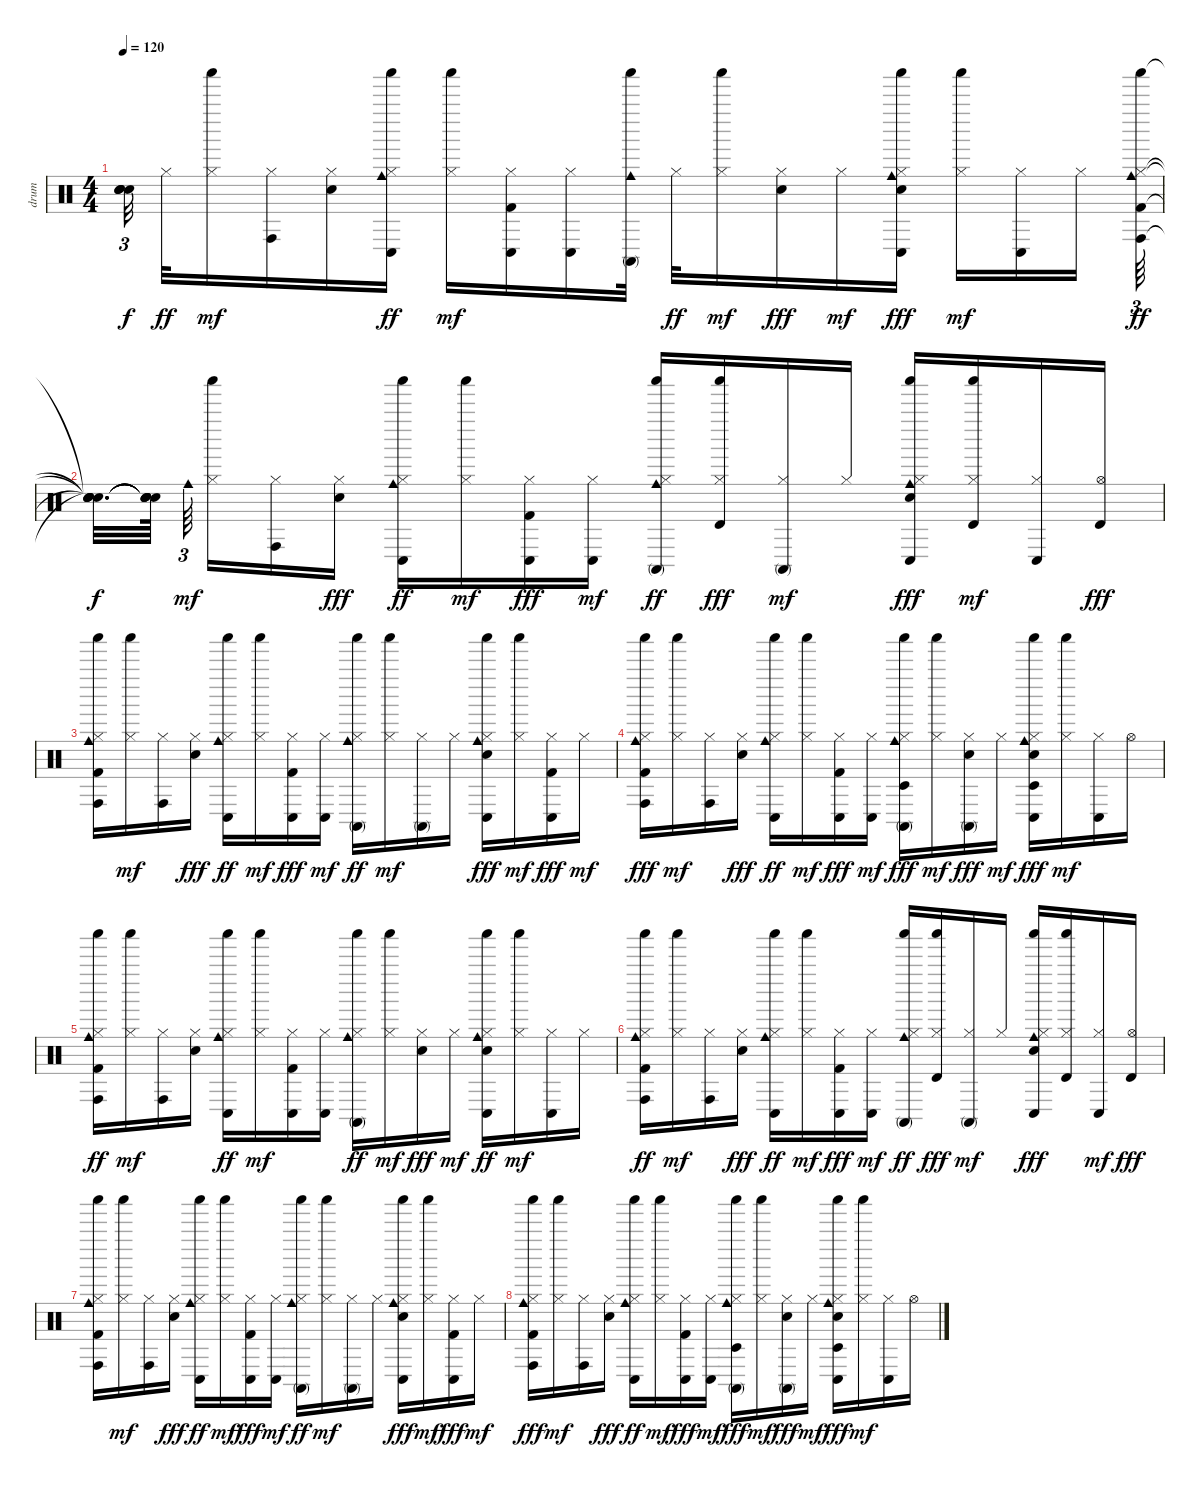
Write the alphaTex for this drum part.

\track ("drum" "drum") {instrument percussion}
\staff {score}
\articulation defaults
\ts (4 4)
\tempo 120
\clef neutral
\ks c
("Snare (hit)"{t} "Snare (hit)"{t} "Snare (hit)"{t} "Snare (hit)"{t}).32{tu (3 2) dy f beam splitsecondary} "Hi-Hat (closed)".32{dy ff} ("Shaker (hit)" "Hi-Hat (closed)").16{dy mf} ("Conga high (hit)" "Hi-Hat (closed)").16 ("Electric Snare (hit)" "Hi-Hat (closed)").16 ("Conga low (hit)" "Cowbell medium (hit)" "Shaker (hit)" "Hi-Hat (closed)").16{dy ff} ("Shaker (hit)" "Hi-Hat (closed)").16{dy mf} ("Conga low (hit)" "Kick (hit) 2" "Hi-Hat (closed)").16 ("Conga low (hit)" "Hi-Hat (closed)").16 ("Conga high (mute)" "Cowbell medium (hit)" "Shaker (hit)").32 "Hi-Hat (closed)".32{dy ff} ("Shaker (hit)" "Hi-Hat (closed)").16{dy mf} ("Hi-Hat (closed)" "Electric Snare (hit)").16{dy fff} "Hi-Hat (closed)".16{dy mf} ("Conga low (hit)" "Shaker (hit)" "Cowbell medium (hit)" "Hi-Hat (closed)" "Electric Snare (hit)").16{dy fff} ("Shaker (hit)" "Hi-Hat (closed)").16{dy mf} ("Conga low (hit)" "Hi-Hat (closed)").16 "Hi-Hat (closed)".16{beam splitsecondary} ("Conga high (hit)" "Shaker (hit)" "Cowbell medium (hit)" "Kick (hit) 2" "Hi-Hat (closed)").64{tu (3 2) dy ff} |
("Snare (hit)"{t} "Snare (hit)"{t} "Snare (hit)"{t} "Snare (hit)"{t} "Snare (hit)"{t}).32{d dy f} ("Snare (hit)"{t} "Snare (hit)"{t} "Snare (hit)"{t} "Snare (hit)"{t} "Snare (hit)"{t}).64{beam splitsecondary} "Cowbell medium (hit)".64{tu (3 2) dy mf beam splitsecondary} ("Shaker (hit)" "Hi-Hat (closed)").16 ("Conga high (hit)" "Hi-Hat (closed)").16 ("Hi-Hat (closed)" "Electric Snare (hit)").16{dy fff} ("Conga low (hit)" "Cowbell medium (hit)" "Shaker (hit)" "Hi-Hat (closed)").16{dy ff} ("Shaker (hit)" "Hi-Hat (closed)").16{dy mf} ("Conga low (hit)" "Hi-Hat (closed)" "Kick (hit) 2").16{dy fff} ("Conga low (hit)" "Hi-Hat (closed)").16{dy mf} ("Conga high (mute)" "Cowbell medium (hit)" "Shaker (hit)" "Hi-Hat (closed)").16{dy ff} ("Shaker (hit)" "Hi-Hat (closed)" "Timbale high (hit)").16{dy fff} ("Conga high (mute)" "Hi-Hat (closed)").16{dy mf} "Hi-Hat (closed)".16 ("Conga low (hit)" "Cowbell medium (hit)" "Shaker (hit)" "Hi-Hat (closed)" "Electric Snare (hit)").16{dy fff} ("Shaker (hit)" "Timbale high (hit)" "Hi-Hat (closed)").16{dy mf} ("Conga low (hit)" "Hi-Hat (closed)").16 ("Hi-Hat (open)" "Timbale high (hit)").16{dy fff} |
("Conga high (hit)" "Shaker (hit)" "Cowbell medium (hit)" "Hi-Hat (closed)" "Kick (hit) 2").16 ("Shaker (hit)" "Hi-Hat (closed)").16{dy mf} ("Conga high (hit)" "Hi-Hat (closed)").16 ("Hi-Hat (closed)" "Electric Snare (hit)").16{dy fff} ("Conga low (hit)" "Shaker (hit)" "Cowbell medium (hit)" "Hi-Hat (closed)").16{dy ff} ("Hi-Hat (closed)" "Shaker (hit)").16{dy mf} ("Conga low (hit)" "Hi-Hat (closed)" "Kick (hit) 2").16{dy fff} ("Hi-Hat (closed)" "Conga low (hit)").16{dy mf} ("Conga high (mute)" "Cowbell medium (hit)" "Shaker (hit)" "Hi-Hat (closed)").16{dy ff} ("Shaker (hit)" "Hi-Hat (closed)").16{dy mf} ("Conga high (mute)" "Hi-Hat (closed)").16 "Hi-Hat (closed)".16 ("Conga low (hit)" "Cowbell medium (hit)" "Shaker (hit)" "Hi-Hat (closed)" "Electric Snare (hit)").16{dy fff} ("Shaker (hit)" "Hi-Hat (closed)").16{dy mf} ("Conga low (hit)" "Hi-Hat (closed)" "Kick (hit) 2").16{dy fff} "Hi-Hat (closed)".16{dy mf} |
("Conga high (hit)" "Cowbell medium (hit)" "Shaker (hit)" "Hi-Hat (closed)" "Kick (hit) 2").16{dy fff} ("Hi-Hat (closed)" "Shaker (hit)").16{dy mf} ("Conga high (hit)" "Hi-Hat (closed)").16 ("Hi-Hat (closed)" "Electric Snare (hit)").16{dy fff} ("Conga low (hit)" "Cowbell medium (hit)" "Shaker (hit)" "Hi-Hat (closed)").16{dy ff} ("Shaker (hit)" "Hi-Hat (closed)").16{dy mf} ("Conga low (hit)" "Hi-Hat (closed)" "Kick (hit) 2").16{dy fff} ("Conga low (hit)" "Hi-Hat (closed)").16{dy mf} ("Conga high (mute)" "Cowbell medium (hit)" "Shaker (hit)" "Hi-Hat (closed)" "Timbale low (hit)").16{dy fff} ("Shaker (hit)" "Hi-Hat (closed)").16{dy mf} ("Conga high (mute)" "Hi-Hat (closed)" "Electric Snare (hit)").16{dy fff} "Hi-Hat (closed)".16{dy mf} ("Conga low (hit)" "Hi-Hat (closed)" "Shaker (hit)" "Electric Snare (hit)" "Cowbell medium (hit)" "Timbale low (hit)").16{dy fff} ("Hi-Hat (closed)" "Shaker (hit)").16{dy mf} ("Hi-Hat (closed)" "Conga low (hit)").16 "Hi-Hat (open)".16 |
("Conga high (hit)" "Shaker (hit)" "Cowbell medium (hit)" "Kick (hit) 2" "Hi-Hat (closed)").16{dy ff} ("Shaker (hit)" "Hi-Hat (closed)").16{dy mf} ("Conga high (hit)" "Hi-Hat (closed)").16 ("Electric Snare (hit)" "Hi-Hat (closed)").16 ("Conga low (hit)" "Cowbell medium (hit)" "Shaker (hit)" "Hi-Hat (closed)").16{dy ff} ("Shaker (hit)" "Hi-Hat (closed)").16{dy mf} ("Conga low (hit)" "Kick (hit) 2" "Hi-Hat (closed)").16 ("Conga low (hit)" "Hi-Hat (closed)").16 ("Conga high (mute)" "Cowbell medium (hit)" "Shaker (hit)" "Hi-Hat (closed)").16{dy ff} ("Shaker (hit)" "Hi-Hat (closed)").16{dy mf} ("Hi-Hat (closed)" "Electric Snare (hit)").16{dy fff} "Hi-Hat (closed)".16{dy mf} ("Conga low (hit)" "Shaker (hit)" "Electric Snare (hit)" "Cowbell medium (hit)" "Hi-Hat (closed)").16{dy ff} ("Shaker (hit)" "Hi-Hat (closed)").16{dy mf} ("Conga low (hit)" "Hi-Hat (closed)").16 "Hi-Hat (closed)".16 |
("Conga high (hit)" "Shaker (hit)" "Cowbell medium (hit)" "Kick (hit) 2" "Hi-Hat (closed)").16{dy ff} ("Shaker (hit)" "Hi-Hat (closed)").16{dy mf} ("Conga high (hit)" "Hi-Hat (closed)").16 ("Hi-Hat (closed)" "Electric Snare (hit)").16{dy fff} ("Conga low (hit)" "Cowbell medium (hit)" "Shaker (hit)" "Hi-Hat (closed)").16{dy ff} ("Shaker (hit)" "Hi-Hat (closed)").16{dy mf} ("Conga low (hit)" "Hi-Hat (closed)" "Kick (hit) 2").16{dy fff} ("Conga low (hit)" "Hi-Hat (closed)").16{dy mf} ("Conga high (mute)" "Cowbell medium (hit)" "Shaker (hit)" "Hi-Hat (closed)").16{dy ff} ("Shaker (hit)" "Hi-Hat (closed)" "Timbale high (hit)").16{dy fff} ("Conga high (mute)" "Hi-Hat (closed)").16{dy mf} "Hi-Hat (closed)".16 ("Conga low (hit)" "Cowbell medium (hit)" "Shaker (hit)" "Hi-Hat (closed)" "Electric Snare (hit)").16{dy fff} ("Shaker (hit)" "Hi-Hat (closed)" "Timbale high (hit)").16 ("Conga low (hit)" "Hi-Hat (closed)").16{dy mf} ("Hi-Hat (open)" "Timbale high (hit)").16{dy fff} |
("Conga high (hit)" "Shaker (hit)" "Cowbell medium (hit)" "Hi-Hat (closed)" "Kick (hit) 2").16 ("Shaker (hit)" "Hi-Hat (closed)").16{dy mf} ("Conga high (hit)" "Hi-Hat (closed)").16 ("Hi-Hat (closed)" "Electric Snare (hit)").16{dy fff} ("Conga low (hit)" "Cowbell medium (hit)" "Shaker (hit)" "Hi-Hat (closed)").16{dy ff} ("Shaker (hit)" "Hi-Hat (closed)").16{dy mf} ("Conga low (hit)" "Hi-Hat (closed)" "Kick (hit) 2").16{dy fff} ("Conga low (hit)" "Hi-Hat (closed)").16{dy mf} ("Conga high (mute)" "Cowbell medium (hit)" "Shaker (hit)" "Hi-Hat (closed)").16{dy ff} ("Shaker (hit)" "Hi-Hat (closed)").16{dy mf} ("Conga high (mute)" "Hi-Hat (closed)").16 "Hi-Hat (closed)".16 ("Conga low (hit)" "Cowbell medium (hit)" "Shaker (hit)" "Hi-Hat (closed)" "Electric Snare (hit)").16{dy fff} ("Shaker (hit)" "Hi-Hat (closed)").16{dy mf} ("Conga low (hit)" "Hi-Hat (closed)" "Kick (hit) 2").16{dy fff} "Hi-Hat (closed)".16{dy mf} |
("Conga high (hit)" "Cowbell medium (hit)" "Shaker (hit)" "Hi-Hat (closed)" "Kick (hit) 2").16{dy fff} ("Shaker (hit)" "Hi-Hat (closed)").16{dy mf} ("Conga high (hit)" "Hi-Hat (closed)").16 ("Hi-Hat (closed)" "Electric Snare (hit)").16{dy fff} ("Conga low (hit)" "Cowbell medium (hit)" "Shaker (hit)" "Hi-Hat (closed)").16{dy ff} ("Shaker (hit)" "Hi-Hat (closed)").16{dy mf} ("Conga low (hit)" "Hi-Hat (closed)" "Kick (hit) 2").16{dy fff} ("Hi-Hat (closed)" "Conga low (hit)").16{dy mf} ("Conga high (mute)" "Cowbell medium (hit)" "Shaker (hit)" "Hi-Hat (closed)" "Timbale low (hit)").16{dy fff} ("Shaker (hit)" "Hi-Hat (closed)").16{dy mf} ("Conga high (mute)" "Hi-Hat (closed)" "Electric Snare (hit)").16{dy fff} "Hi-Hat (closed)".16{dy mf} ("Conga low (hit)" "Hi-Hat (closed)" "Shaker (hit)" "Cowbell medium (hit)" "Electric Snare (hit)" "Timbale low (hit)").16{dy fff} ("Shaker (hit)" "Hi-Hat (closed)").16{dy mf} ("Conga low (hit)" "Hi-Hat (closed)").16 "Hi-Hat (open)".16
